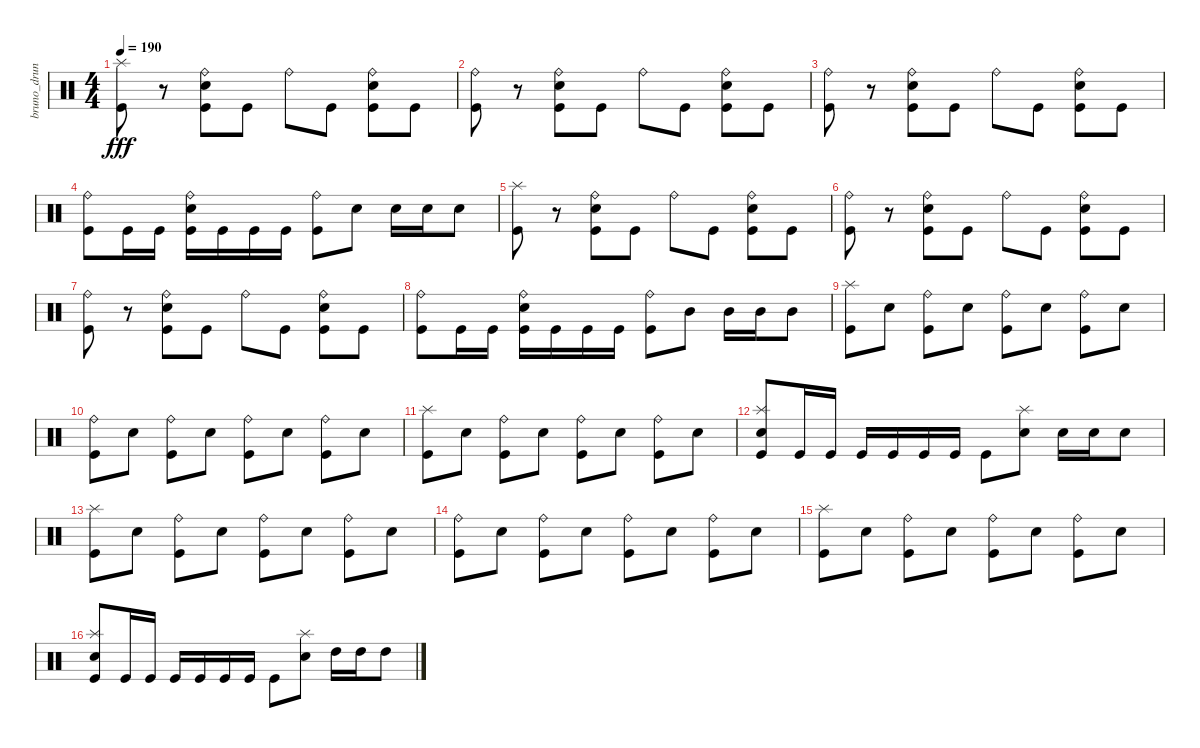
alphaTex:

\track ("bruno_druns" "bruno_drun") {instrument percussion}
\staff {score}
\articulation defaults
\ts (4 4)
\tempo 190
\clef neutral
\ks c
("Kick (hit)" "Splash (hit)").8{dy fff} r.8 ("Kick (hit)" "Electric Snare (hit)" "Ride (bell)").8 "Kick (hit)".8 "Ride (bell)".8 "Kick (hit)".8 ("Kick (hit)" "Electric Snare (hit)" "Ride (bell)").8 "Kick (hit)".8 |
("Kick (hit)" "Ride (bell)").8 r.8 ("Kick (hit)" "Electric Snare (hit)" "Ride (bell)").8 "Kick (hit)".8 "Ride (bell)".8 "Kick (hit)".8 ("Kick (hit)" "Electric Snare (hit)" "Ride (bell)").8 "Kick (hit)".8 |
("Kick (hit)" "Ride (bell)").8 r.8 ("Kick (hit)" "Electric Snare (hit)" "Ride (bell)").8 "Kick (hit)".8 "Ride (bell)".8 "Kick (hit)".8 ("Kick (hit)" "Electric Snare (hit)" "Ride (bell)").8 "Kick (hit)".8 |
("Kick (hit)" "Ride (bell)").8 "Kick (hit)".16 "Kick (hit)".16 ("Kick (hit)" "Electric Snare (hit)" "Ride (bell)").16 "Kick (hit)".16 "Kick (hit)".16 "Kick (hit)".16 ("Kick (hit)" "Ride (bell)").8 "Electric Snare (hit)".8 "Electric Snare (hit)".16 "Electric Snare (hit)".16 "Electric Snare (hit)".8 |
("Kick (hit)" "Splash (hit)").8 r.8 ("Kick (hit)" "Electric Snare (hit)" "Ride (bell)").8 "Kick (hit)".8 "Ride (bell)".8 "Kick (hit)".8 ("Kick (hit)" "Electric Snare (hit)" "Ride (bell)").8 "Kick (hit)".8 |
("Kick (hit)" "Ride (bell)").8 r.8 ("Kick (hit)" "Electric Snare (hit)" "Ride (bell)").8 "Kick (hit)".8 "Ride (bell)".8 "Kick (hit)".8 ("Kick (hit)" "Electric Snare (hit)" "Ride (bell)").8 "Kick (hit)".8 |
("Kick (hit)" "Ride (bell)").8 r.8 ("Kick (hit)" "Electric Snare (hit)" "Ride (bell)").8 "Kick (hit)".8 "Ride (bell)".8 "Kick (hit)".8 ("Kick (hit)" "Electric Snare (hit)" "Ride (bell)").8 "Kick (hit)".8 |
("Kick (hit)" "Ride (bell)").8 "Kick (hit)".16 "Kick (hit)".16 ("Kick (hit)" "Electric Snare (hit)" "Ride (bell)").16 "Kick (hit)".16 "Kick (hit)".16 "Kick (hit)".16 ("Kick (hit)" "Ride (bell)").8 "Mid Tom (hit)".8 "Mid Tom (hit)".16 "Mid Tom (hit)".16 "Mid Tom (hit)".8 |
("Kick (hit)" "Splash (hit)").8 "Electric Snare (hit)".8 ("Kick (hit)" "Ride (bell)").8 "Electric Snare (hit)".8 ("Kick (hit)" "Ride (bell)").8 "Electric Snare (hit)".8 ("Kick (hit)" "Ride (bell)").8 "Electric Snare (hit)".8 |
("Kick (hit)" "Ride (bell)").8 "Electric Snare (hit)".8 ("Kick (hit)" "Ride (bell)").8 "Electric Snare (hit)".8 ("Kick (hit)" "Ride (bell)").8 "Electric Snare (hit)".8 ("Kick (hit)" "Ride (bell)").8 "Electric Snare (hit)".8 |
("Kick (hit)" "Splash (hit)").8 "Electric Snare (hit)".8 ("Kick (hit)" "Ride (bell)").8 "Electric Snare (hit)".8 ("Kick (hit)" "Ride (bell)").8 "Electric Snare (hit)".8 ("Kick (hit)" "Ride (bell)").8 "Electric Snare (hit)".8 |
("Kick (hit)" "Electric Snare (hit)" "Splash (hit)").8 "Kick (hit)".16 "Kick (hit)".16 "Kick (hit)".16 "Kick (hit)".16 "Kick (hit)".16 "Kick (hit)".16 "Kick (hit)".8 ("Electric Snare (hit)" "Splash (hit)").8 "Electric Snare (hit)".16 "Electric Snare (hit)".16 "Electric Snare (hit)".8 |
("Kick (hit)" "Splash (hit)").8 "Electric Snare (hit)".8 ("Kick (hit)" "Ride (bell)").8 "Electric Snare (hit)".8 ("Kick (hit)" "Ride (bell)").8 "Electric Snare (hit)".8 ("Kick (hit)" "Ride (bell)").8 "Electric Snare (hit)".8 |
("Kick (hit)" "Ride (bell)").8 "Electric Snare (hit)".8 ("Kick (hit)" "Ride (bell)").8 "Electric Snare (hit)".8 ("Kick (hit)" "Ride (bell)").8 "Electric Snare (hit)".8 ("Kick (hit)" "Ride (bell)").8 "Electric Snare (hit)".8 |
("Kick (hit)" "Splash (hit)").8 "Electric Snare (hit)".8 ("Kick (hit)" "Ride (bell)").8 "Electric Snare (hit)".8 ("Kick (hit)" "Ride (bell)").8 "Electric Snare (hit)".8 ("Kick (hit)" "Ride (bell)").8 "Electric Snare (hit)".8 |
("Kick (hit)" "Electric Snare (hit)" "Splash (hit)").8 "Kick (hit)".16 "Kick (hit)".16 "Kick (hit)".16 "Kick (hit)".16 "Kick (hit)".16 "Kick (hit)".16 "Kick (hit)".8 ("Electric Snare (hit)" "Splash (hit)").8 "High Tom (hit)".16 "High Tom (hit)".16 "High Tom (hit)".8
